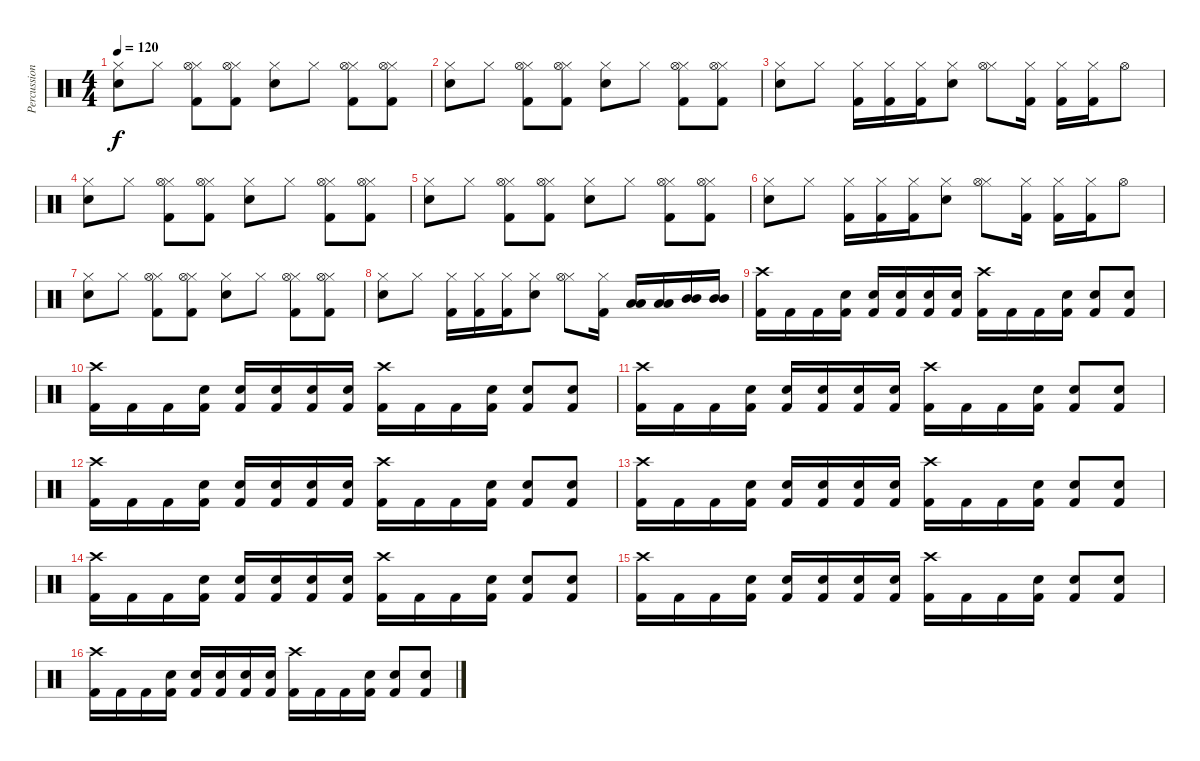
\track ("Percussioni" "Percussion") {instrument percussion}
\staff {score}
\articulation defaults
\ts (4 4)
\tempo 120
\clef neutral
\ks c
("Hi-Hat (closed)" "Electric Snare (hit)").8{dy f} "Hi-Hat (closed)".8 ("Hi-Hat (closed)" "Hi-Hat (open)" "Kick (hit) 2").8 ("Hi-Hat (closed)" "Hi-Hat (open)" "Kick (hit) 2").8 ("Hi-Hat (closed)" "Electric Snare (hit)").8 "Hi-Hat (closed)".8 ("Hi-Hat (closed)" "Hi-Hat (open)" "Kick (hit) 2").8 ("Hi-Hat (closed)" "Hi-Hat (open)" "Kick (hit) 2").8 |
("Hi-Hat (closed)" "Electric Snare (hit)").8 "Hi-Hat (closed)".8 ("Hi-Hat (closed)" "Hi-Hat (open)" "Kick (hit) 2").8 ("Hi-Hat (closed)" "Hi-Hat (open)" "Kick (hit) 2").8 ("Hi-Hat (closed)" "Electric Snare (hit)").8 "Hi-Hat (closed)".8 ("Hi-Hat (closed)" "Hi-Hat (open)" "Kick (hit) 2").8 ("Hi-Hat (closed)" "Hi-Hat (open)" "Kick (hit) 2").8 |
("Hi-Hat (closed)" "Electric Snare (hit)").8 "Hi-Hat (closed)".8 ("Hi-Hat (closed)" "Kick (hit) 2").16 ("Hi-Hat (closed)" "Kick (hit) 2").16 ("Hi-Hat (closed)" "Kick (hit) 2").16 ("Hi-Hat (closed)" "Electric Snare (hit)").8 ("Hi-Hat (closed)" "Hi-Hat (open)").8 ("Hi-Hat (closed)" "Kick (hit) 2").16 ("Hi-Hat (closed)" "Kick (hit) 2").16 ("Hi-Hat (closed)" "Kick (hit) 2").16 "Hi-Hat (open)".8 |
("Hi-Hat (closed)" "Electric Snare (hit)").8 "Hi-Hat (closed)".8 ("Hi-Hat (closed)" "Hi-Hat (open)" "Kick (hit) 2").8 ("Hi-Hat (closed)" "Hi-Hat (open)" "Kick (hit) 2").8 ("Hi-Hat (closed)" "Electric Snare (hit)").8 "Hi-Hat (closed)".8 ("Hi-Hat (closed)" "Hi-Hat (open)" "Kick (hit) 2").8 ("Hi-Hat (closed)" "Hi-Hat (open)" "Kick (hit) 2").8 |
("Hi-Hat (closed)" "Electric Snare (hit)").8 "Hi-Hat (closed)".8 ("Hi-Hat (closed)" "Hi-Hat (open)" "Kick (hit) 2").8 ("Hi-Hat (closed)" "Hi-Hat (open)" "Kick (hit) 2").8 ("Hi-Hat (closed)" "Electric Snare (hit)").8 "Hi-Hat (closed)".8 ("Hi-Hat (closed)" "Hi-Hat (open)" "Kick (hit) 2").8 ("Hi-Hat (closed)" "Hi-Hat (open)" "Kick (hit) 2").8 |
("Hi-Hat (closed)" "Electric Snare (hit)").8 "Hi-Hat (closed)".8 ("Hi-Hat (closed)" "Kick (hit) 2").16 ("Hi-Hat (closed)" "Kick (hit) 2").16 ("Hi-Hat (closed)" "Kick (hit) 2").16 ("Hi-Hat (closed)" "Electric Snare (hit)").8 ("Hi-Hat (closed)" "Hi-Hat (open)").8 ("Hi-Hat (closed)" "Kick (hit) 2").16 ("Hi-Hat (closed)" "Kick (hit) 2").16 ("Hi-Hat (closed)" "Kick (hit) 2").16 "Hi-Hat (open)".8 |
("Hi-Hat (closed)" "Electric Snare (hit)").8 "Hi-Hat (closed)".8 ("Hi-Hat (closed)" "Hi-Hat (open)" "Kick (hit) 2").8 ("Hi-Hat (closed)" "Hi-Hat (open)" "Kick (hit) 2").8 ("Hi-Hat (closed)" "Electric Snare (hit)").8 "Hi-Hat (closed)".8 ("Hi-Hat (closed)" "Hi-Hat (open)" "Kick (hit) 2").8 ("Hi-Hat (closed)" "Hi-Hat (open)" "Kick (hit) 2").8 |
("Hi-Hat (closed)" "Electric Snare (hit)").8 "Hi-Hat (closed)".8 ("Hi-Hat (closed)" "Kick (hit) 2").16 ("Hi-Hat (closed)" "Kick (hit) 2").16 ("Hi-Hat (closed)" "Kick (hit) 2").16 ("Hi-Hat (closed)" "Electric Snare (hit)").8 ("Hi-Hat (closed)" "Hi-Hat (open)").8 ("Hi-Hat (closed)" "Kick (hit) 2").16 ("Low Tom (hit)" "Low Tom (hit)").16 ("Low Tom (hit)" "Low Tom (hit)").16 ("Mid Tom (hit)" "Mid Tom (hit)").16 ("Mid Tom (hit)" "Mid Tom (hit)").16 |
("Kick (hit) 2" "Crash high (hit)").16 "Kick (hit) 2".16 "Kick (hit) 2".16 ("Kick (hit) 2" "Electric Snare (hit)").16 ("Kick (hit) 2" "Electric Snare (hit)").16 ("Kick (hit) 2" "Electric Snare (hit)").16 ("Kick (hit) 2" "Electric Snare (hit)").16 ("Kick (hit) 2" "Electric Snare (hit)").16 ("Kick (hit) 2" "Crash high (hit)").16 "Kick (hit) 2".16 "Kick (hit) 2".16 ("Kick (hit) 2" "Electric Snare (hit)").16 ("Kick (hit) 2" "Electric Snare (hit)").8 ("Kick (hit) 2" "Electric Snare (hit)").8 |
("Kick (hit) 2" "Crash high (hit)").16 "Kick (hit) 2".16 "Kick (hit) 2".16 ("Kick (hit) 2" "Electric Snare (hit)").16 ("Kick (hit) 2" "Electric Snare (hit)").16 ("Kick (hit) 2" "Electric Snare (hit)").16 ("Kick (hit) 2" "Electric Snare (hit)").16 ("Kick (hit) 2" "Electric Snare (hit)").16 ("Kick (hit) 2" "Crash high (hit)").16 "Kick (hit) 2".16 "Kick (hit) 2".16 ("Kick (hit) 2" "Electric Snare (hit)").16 ("Kick (hit) 2" "Electric Snare (hit)").8 ("Kick (hit) 2" "Electric Snare (hit)").8 |
("Kick (hit) 2" "Crash high (hit)").16 "Kick (hit) 2".16 "Kick (hit) 2".16 ("Kick (hit) 2" "Electric Snare (hit)").16 ("Kick (hit) 2" "Electric Snare (hit)").16 ("Kick (hit) 2" "Electric Snare (hit)").16 ("Kick (hit) 2" "Electric Snare (hit)").16 ("Kick (hit) 2" "Electric Snare (hit)").16 ("Kick (hit) 2" "Crash high (hit)").16 "Kick (hit) 2".16 "Kick (hit) 2".16 ("Kick (hit) 2" "Electric Snare (hit)").16 ("Kick (hit) 2" "Electric Snare (hit)").8 ("Kick (hit) 2" "Electric Snare (hit)").8 |
("Kick (hit) 2" "Crash high (hit)").16 "Kick (hit) 2".16 "Kick (hit) 2".16 ("Kick (hit) 2" "Electric Snare (hit)").16 ("Kick (hit) 2" "Electric Snare (hit)").16 ("Kick (hit) 2" "Electric Snare (hit)").16 ("Kick (hit) 2" "Electric Snare (hit)").16 ("Kick (hit) 2" "Electric Snare (hit)").16 ("Kick (hit) 2" "Crash high (hit)").16 "Kick (hit) 2".16 "Kick (hit) 2".16 ("Kick (hit) 2" "Electric Snare (hit)").16 ("Kick (hit) 2" "Electric Snare (hit)").8 ("Kick (hit) 2" "Electric Snare (hit)").8 |
("Kick (hit) 2" "Crash high (hit)").16 "Kick (hit) 2".16 "Kick (hit) 2".16 ("Kick (hit) 2" "Electric Snare (hit)").16 ("Kick (hit) 2" "Electric Snare (hit)").16 ("Kick (hit) 2" "Electric Snare (hit)").16 ("Kick (hit) 2" "Electric Snare (hit)").16 ("Kick (hit) 2" "Electric Snare (hit)").16 ("Kick (hit) 2" "Crash high (hit)").16 "Kick (hit) 2".16 "Kick (hit) 2".16 ("Kick (hit) 2" "Electric Snare (hit)").16 ("Kick (hit) 2" "Electric Snare (hit)").8 ("Kick (hit) 2" "Electric Snare (hit)").8 |
("Kick (hit) 2" "Crash high (hit)").16 "Kick (hit) 2".16 "Kick (hit) 2".16 ("Kick (hit) 2" "Electric Snare (hit)").16 ("Kick (hit) 2" "Electric Snare (hit)").16 ("Kick (hit) 2" "Electric Snare (hit)").16 ("Kick (hit) 2" "Electric Snare (hit)").16 ("Kick (hit) 2" "Electric Snare (hit)").16 ("Kick (hit) 2" "Crash high (hit)").16 "Kick (hit) 2".16 "Kick (hit) 2".16 ("Kick (hit) 2" "Electric Snare (hit)").16 ("Kick (hit) 2" "Electric Snare (hit)").8 ("Kick (hit) 2" "Electric Snare (hit)").8 |
("Kick (hit) 2" "Crash high (hit)").16 "Kick (hit) 2".16 "Kick (hit) 2".16 ("Kick (hit) 2" "Electric Snare (hit)").16 ("Kick (hit) 2" "Electric Snare (hit)").16 ("Kick (hit) 2" "Electric Snare (hit)").16 ("Kick (hit) 2" "Electric Snare (hit)").16 ("Kick (hit) 2" "Electric Snare (hit)").16 ("Kick (hit) 2" "Crash high (hit)").16 "Kick (hit) 2".16 "Kick (hit) 2".16 ("Kick (hit) 2" "Electric Snare (hit)").16 ("Kick (hit) 2" "Electric Snare (hit)").8 ("Kick (hit) 2" "Electric Snare (hit)").8 |
("Kick (hit) 2" "Crash high (hit)").16 "Kick (hit) 2".16 "Kick (hit) 2".16 ("Kick (hit) 2" "Electric Snare (hit)").16 ("Kick (hit) 2" "Electric Snare (hit)").16 ("Kick (hit) 2" "Electric Snare (hit)").16 ("Kick (hit) 2" "Electric Snare (hit)").16 ("Kick (hit) 2" "Electric Snare (hit)").16 ("Kick (hit) 2" "Crash high (hit)").16 "Kick (hit) 2".16 "Kick (hit) 2".16 ("Kick (hit) 2" "Electric Snare (hit)").16 ("Kick (hit) 2" "Electric Snare (hit)").8 ("Kick (hit) 2" "Electric Snare (hit)").8
